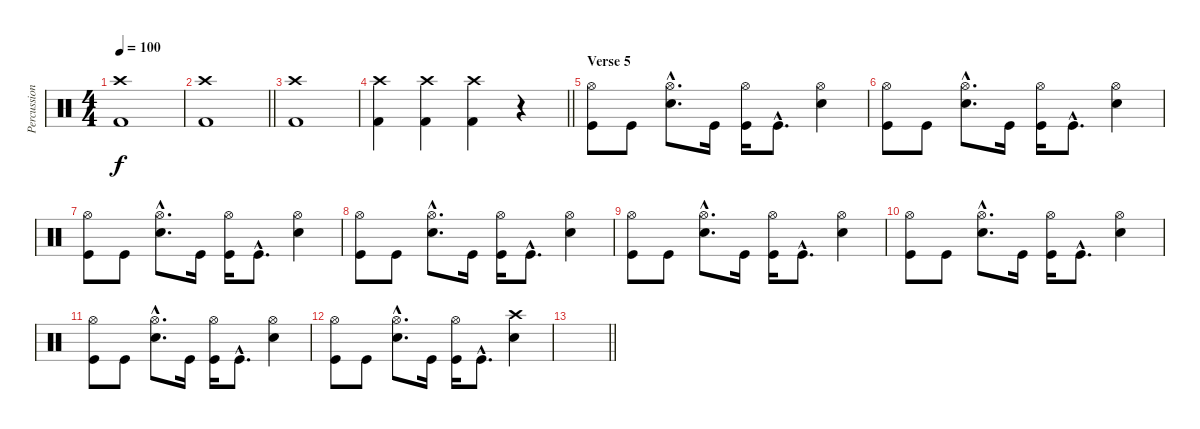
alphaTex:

\track ("Percussion" "Percussion") {instrument percussion}
\staff {score}
\articulation defaults
\ts (4 4)
\tempo 100
\clef neutral
\ks c
("Crash high (hit)" "Kick (hit) 2").1{dy f} |
\barLineRight lightlight
("Crash high (hit)" "Kick (hit) 2").1 |
("Crash high (hit)" "Kick (hit) 2").1 |
\barLineRight lightlight
("Crash high (hit)" "Kick (hit) 2").4 ("Crash high (hit)" "Kick (hit) 2").4 ("Crash high (hit)" "Kick (hit) 2").4 r.4 |
\section ("" "Verse 5")
("Hi-Hat (open)" "Kick (hit)").8 "Kick (hit)".8 ("Hi-Hat (open)"{hac} "Electric Snare (hit)"{hac}).8{d} "Kick (hit)".16 ("Hi-Hat (open)" "Kick (hit)").16 "Kick (hit)"{hac}.8{d} ("Hi-Hat (open)" "Electric Snare (hit)").4 |
("Hi-Hat (open)" "Kick (hit)").8 "Kick (hit)".8 ("Hi-Hat (open)"{hac} "Electric Snare (hit)"{hac}).8{d} "Kick (hit)".16 ("Hi-Hat (open)" "Kick (hit)").16 "Kick (hit)"{hac}.8{d} ("Hi-Hat (open)" "Electric Snare (hit)").4 |
("Hi-Hat (open)" "Kick (hit)").8 "Kick (hit)".8 ("Hi-Hat (open)"{hac} "Electric Snare (hit)"{hac}).8{d} "Kick (hit)".16 ("Hi-Hat (open)" "Kick (hit)").16 "Kick (hit)"{hac}.8{d} ("Hi-Hat (open)" "Electric Snare (hit)").4 |
("Hi-Hat (open)" "Kick (hit)").8 "Kick (hit)".8 ("Hi-Hat (open)"{hac} "Electric Snare (hit)"{hac}).8{d} "Kick (hit)".16 ("Hi-Hat (open)" "Kick (hit)").16 "Kick (hit)"{hac}.8{d} ("Hi-Hat (open)" "Electric Snare (hit)").4 |
("Hi-Hat (open)" "Kick (hit)").8 "Kick (hit)".8 ("Hi-Hat (open)"{hac} "Electric Snare (hit)"{hac}).8{d} "Kick (hit)".16 ("Hi-Hat (open)" "Kick (hit)").16 "Kick (hit)"{hac}.8{d} ("Hi-Hat (open)" "Electric Snare (hit)").4 |
("Hi-Hat (open)" "Kick (hit)").8 "Kick (hit)".8 ("Hi-Hat (open)"{hac} "Electric Snare (hit)"{hac}).8{d} "Kick (hit)".16 ("Hi-Hat (open)" "Kick (hit)").16 "Kick (hit)"{hac}.8{d} ("Hi-Hat (open)" "Electric Snare (hit)").4 |
("Hi-Hat (open)" "Kick (hit)").8 "Kick (hit)".8 ("Hi-Hat (open)"{hac} "Electric Snare (hit)"{hac}).8{d} "Kick (hit)".16 ("Hi-Hat (open)" "Kick (hit)").16 "Kick (hit)"{hac}.8{d} ("Hi-Hat (open)" "Electric Snare (hit)").4 |
("Hi-Hat (open)" "Kick (hit)").8 "Kick (hit)".8 ("Hi-Hat (open)"{hac} "Electric Snare (hit)"{hac}).8{d} "Kick (hit)".16 ("Hi-Hat (open)" "Kick (hit)").16 "Kick (hit)"{hac}.8{d} ("Crash high (hit)" "Electric Snare (hit)").4 |
\barLineRight lightlight
